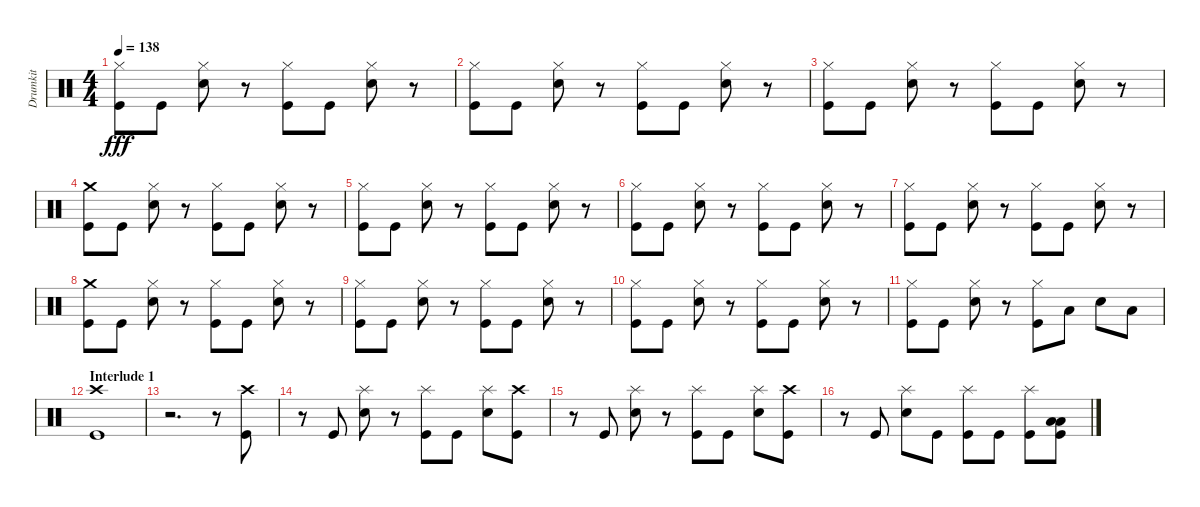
\track ("Drumkit" "Drumkit") {instrument percussion}
\staff {score}
\articulation defaults
\ts (4 4)
\tempo 138
\clef neutral
\ks c
("Hi-Hat (closed)" "Kick (hit)").8{dy fff} "Kick (hit)".8 ("Hi-Hat (closed)" "Snare (hit) 2").8 r.8 ("Hi-Hat (closed)" "Kick (hit)").8 "Kick (hit)".8 ("Hi-Hat (closed)" "Snare (hit) 2").8 r.8 |
("Hi-Hat (closed)" "Kick (hit)").8 "Kick (hit)".8 ("Hi-Hat (closed)" "Snare (hit) 2").8 r.8 ("Hi-Hat (closed)" "Kick (hit)").8 "Kick (hit)".8 ("Hi-Hat (closed)" "Snare (hit) 2").8 r.8 |
("Hi-Hat (closed)" "Kick (hit)").8 "Kick (hit)".8 ("Hi-Hat (closed)" "Snare (hit) 2").8 r.8 ("Hi-Hat (closed)" "Kick (hit)").8 "Kick (hit)".8 ("Hi-Hat (closed)" "Snare (hit) 2").8 r.8 |
("Crash medium (hit)" "Kick (hit)").8 "Kick (hit)".8 ("Hi-Hat (closed)" "Snare (hit) 2").8 r.8 ("Hi-Hat (closed)" "Kick (hit)").8 "Kick (hit)".8 ("Hi-Hat (closed)" "Snare (hit) 2").8 r.8 |
("Hi-Hat (closed)" "Kick (hit)").8 "Kick (hit)".8 ("Hi-Hat (closed)" "Snare (hit) 2").8 r.8 ("Hi-Hat (closed)" "Kick (hit)").8 "Kick (hit)".8 ("Hi-Hat (closed)" "Snare (hit) 2").8 r.8 |
("Hi-Hat (closed)" "Kick (hit)").8 "Kick (hit)".8 ("Hi-Hat (closed)" "Snare (hit) 2").8 r.8 ("Hi-Hat (closed)" "Kick (hit)").8 "Kick (hit)".8 ("Hi-Hat (closed)" "Snare (hit) 2").8 r.8 |
("Hi-Hat (closed)" "Kick (hit)").8 "Kick (hit)".8 ("Hi-Hat (closed)" "Snare (hit) 2").8 r.8 ("Hi-Hat (closed)" "Kick (hit)").8 "Kick (hit)".8 ("Hi-Hat (closed)" "Snare (hit) 2").8 r.8 |
("Crash medium (hit)" "Kick (hit)").8 "Kick (hit)".8 ("Hi-Hat (closed)" "Snare (hit) 2").8 r.8 ("Hi-Hat (closed)" "Kick (hit)").8 "Kick (hit)".8 ("Hi-Hat (closed)" "Snare (hit) 2").8 r.8 |
("Hi-Hat (closed)" "Kick (hit)").8 "Kick (hit)".8 ("Hi-Hat (closed)" "Snare (hit) 2").8 r.8 ("Hi-Hat (closed)" "Kick (hit)").8 "Kick (hit)".8 ("Hi-Hat (closed)" "Snare (hit) 2").8 r.8 |
("Hi-Hat (closed)" "Kick (hit)").8 "Kick (hit)".8 ("Hi-Hat (closed)" "Snare (hit) 2").8 r.8 ("Hi-Hat (closed)" "Kick (hit)").8 "Kick (hit)".8 ("Hi-Hat (closed)" "Snare (hit) 2").8 r.8 |
("Hi-Hat (closed)" "Kick (hit)").8 "Kick (hit)".8 ("Hi-Hat (closed)" "Snare (hit) 2").8 r.8 ("Hi-Hat (closed)" "Kick (hit)").8 "Low Tom (hit)".8 "Snare (hit) 2".8 "Low Floor Tom (hit)".8 |
\section ("" "Interlude 1")
("Crash high (hit)" "Kick (hit)").1 |
r.2{d} r.8 ("Crash high (hit)" "Kick (hit)").8 |
r.8 "Kick (hit)".8 ("Splash (hit)" "Snare (hit) 2").8 r.8 ("Splash (hit)" "Kick (hit)").8 "Kick (hit)".8 ("Splash (hit)" "Snare (hit) 2").8 ("Crash high (hit)" "Kick (hit)").8 |
r.8 "Kick (hit)".8 ("Splash (hit)" "Snare (hit) 2").8 r.8 ("Splash (hit)" "Kick (hit)").8 "Kick (hit)".8 ("Splash (hit)" "Snare (hit) 2").8 ("Crash high (hit)" "Kick (hit)").8 |
r.8 "Kick (hit)".8 ("Splash (hit)" "Snare (hit) 2").8 "Kick (hit)".8 ("Splash (hit)" "Kick (hit)").8 "Kick (hit)".8 ("Splash (hit)" "Kick (hit)").8 ("Low Floor Tom (hit)" "Low Tom (hit)" "Kick (hit)").8
